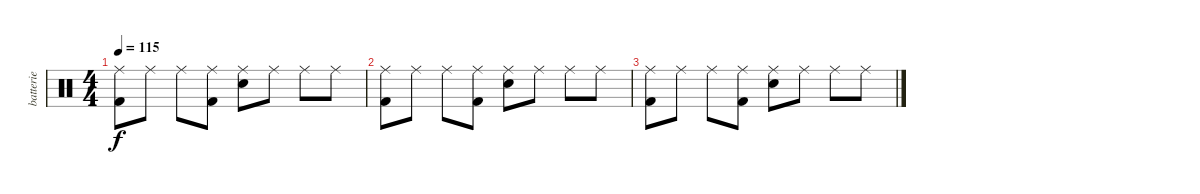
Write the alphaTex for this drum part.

\track ("batterie" "batterie") {instrument percussion}
\staff {score}
\articulation defaults
\ts (4 4)
\tempo 115
\clef neutral
\ks c
("Ride (middle)" "Kick (hit) 2").8{dy f} "Ride (middle)".8 "Ride (middle)".8 ("Ride (middle)" "Kick (hit) 2").8 ("Ride (middle)" "Electric Snare (hit)").8 "Ride (middle)".8 "Ride (middle)".8 "Ride (middle)".8 |
("Ride (middle)" "Kick (hit) 2").8 "Ride (middle)".8 "Ride (middle)".8 ("Ride (middle)" "Kick (hit) 2").8 ("Ride (middle)" "Electric Snare (hit)").8 "Ride (middle)".8 "Ride (middle)".8 "Ride (middle)".8 |
("Ride (middle)" "Kick (hit) 2").8 "Ride (middle)".8 "Ride (middle)".8 ("Ride (middle)" "Kick (hit) 2").8 ("Ride (middle)" "Electric Snare (hit)").8 "Ride (middle)".8 "Ride (middle)".8 "Ride (middle)".8
